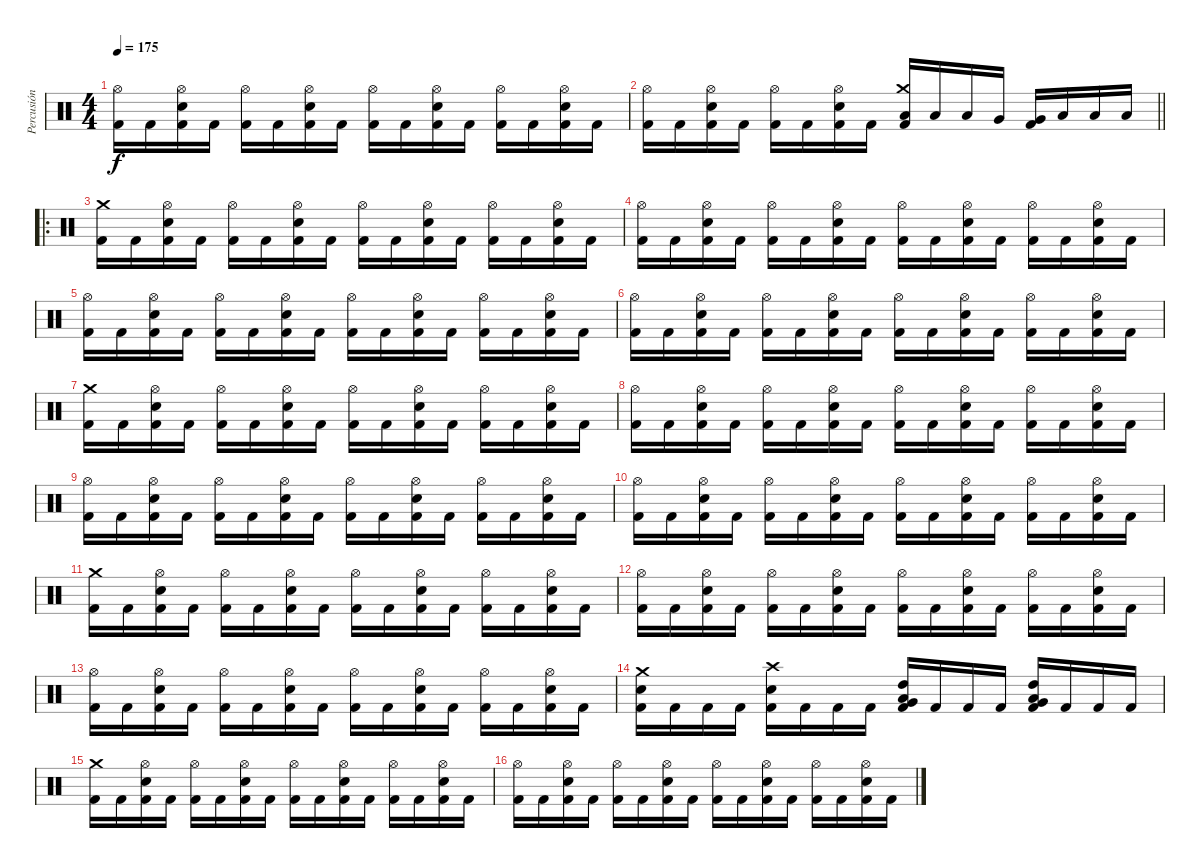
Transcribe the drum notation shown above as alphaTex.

\track ("Percusión" "Percusión") {instrument percussion}
\staff {score}
\articulation defaults
\ts (4 4)
\tempo 175
\clef neutral
\ks c
("Hi-Hat (open)" "Kick (hit) 2").16{dy f} "Kick (hit) 2".16 ("Hi-Hat (open)" "Electric Snare (hit)" "Kick (hit) 2").16 "Kick (hit) 2".16 ("Hi-Hat (open)" "Kick (hit) 2").16 "Kick (hit) 2".16 ("Hi-Hat (open)" "Electric Snare (hit)" "Kick (hit) 2").16 "Kick (hit) 2".16 ("Hi-Hat (open)" "Kick (hit) 2").16 "Kick (hit) 2".16 ("Hi-Hat (open)" "Electric Snare (hit)" "Kick (hit) 2").16 "Kick (hit) 2".16 ("Hi-Hat (open)" "Kick (hit) 2").16 "Kick (hit) 2".16 ("Hi-Hat (open)" "Electric Snare (hit)" "Kick (hit) 2").16 "Kick (hit) 2".16 |
\barLineRight lightlight
("Hi-Hat (open)" "Kick (hit) 2").16 "Kick (hit) 2".16 ("Hi-Hat (open)" "Electric Snare (hit)" "Kick (hit) 2").16 "Kick (hit) 2".16 ("Hi-Hat (open)" "Kick (hit) 2").16 "Kick (hit) 2".16 ("Hi-Hat (open)" "Electric Snare (hit)" "Kick (hit) 2").16 "Kick (hit) 2".16 ("Crash medium (hit)" "Low Tom (hit)" "Kick (hit) 2").16 "Low Tom (hit)".16 "Low Tom (hit)".16 "Very Low Tom (hit)".16 ("Very Low Tom (hit)" "Kick (hit) 2").16 "Low Floor Tom (hit)".16 "Low Floor Tom (hit)".16 "Low Floor Tom (hit)".16 |
\ro
("Crash medium (hit)" "Kick (hit) 2").16 "Kick (hit) 2".16 ("Hi-Hat (open)" "Electric Snare (hit)" "Kick (hit) 2").16 "Kick (hit) 2".16 ("Hi-Hat (open)" "Kick (hit) 2").16 "Kick (hit) 2".16 ("Hi-Hat (open)" "Electric Snare (hit)" "Kick (hit) 2").16 "Kick (hit) 2".16 ("Hi-Hat (open)" "Kick (hit) 2").16 "Kick (hit) 2".16 ("Hi-Hat (open)" "Electric Snare (hit)" "Kick (hit) 2").16 "Kick (hit) 2".16 ("Hi-Hat (open)" "Kick (hit) 2").16 "Kick (hit) 2".16 ("Hi-Hat (open)" "Electric Snare (hit)" "Kick (hit) 2").16 "Kick (hit) 2".16 |
("Hi-Hat (open)" "Kick (hit) 2").16 "Kick (hit) 2".16 ("Hi-Hat (open)" "Electric Snare (hit)" "Kick (hit) 2").16 "Kick (hit) 2".16 ("Hi-Hat (open)" "Kick (hit) 2").16 "Kick (hit) 2".16 ("Hi-Hat (open)" "Electric Snare (hit)" "Kick (hit) 2").16 "Kick (hit) 2".16 ("Hi-Hat (open)" "Kick (hit) 2").16 "Kick (hit) 2".16 ("Hi-Hat (open)" "Electric Snare (hit)" "Kick (hit) 2").16 "Kick (hit) 2".16 ("Hi-Hat (open)" "Kick (hit) 2").16 "Kick (hit) 2".16 ("Hi-Hat (open)" "Electric Snare (hit)" "Kick (hit) 2").16 "Kick (hit) 2".16 |
("Hi-Hat (open)" "Kick (hit) 2").16 "Kick (hit) 2".16 ("Hi-Hat (open)" "Electric Snare (hit)" "Kick (hit) 2").16 "Kick (hit) 2".16 ("Hi-Hat (open)" "Kick (hit) 2").16 "Kick (hit) 2".16 ("Hi-Hat (open)" "Electric Snare (hit)" "Kick (hit) 2").16 "Kick (hit) 2".16 ("Hi-Hat (open)" "Kick (hit) 2").16 "Kick (hit) 2".16 ("Hi-Hat (open)" "Electric Snare (hit)" "Kick (hit) 2").16 "Kick (hit) 2".16 ("Hi-Hat (open)" "Kick (hit) 2").16 "Kick (hit) 2".16 ("Hi-Hat (open)" "Electric Snare (hit)" "Kick (hit) 2").16 "Kick (hit) 2".16 |
("Hi-Hat (open)" "Kick (hit) 2").16 "Kick (hit) 2".16 ("Hi-Hat (open)" "Electric Snare (hit)" "Kick (hit) 2").16 "Kick (hit) 2".16 ("Hi-Hat (open)" "Kick (hit) 2").16 "Kick (hit) 2".16 ("Hi-Hat (open)" "Electric Snare (hit)" "Kick (hit) 2").16 "Kick (hit) 2".16 ("Hi-Hat (open)" "Kick (hit) 2").16 "Kick (hit) 2".16 ("Hi-Hat (open)" "Electric Snare (hit)" "Kick (hit) 2").16 "Kick (hit) 2".16 ("Hi-Hat (open)" "Kick (hit) 2").16 "Kick (hit) 2".16 ("Hi-Hat (open)" "Electric Snare (hit)" "Kick (hit) 2").16 "Kick (hit) 2".16 |
("Crash medium (hit)" "Kick (hit) 2").16 "Kick (hit) 2".16 ("Hi-Hat (open)" "Electric Snare (hit)" "Kick (hit) 2").16 "Kick (hit) 2".16 ("Hi-Hat (open)" "Kick (hit) 2").16 "Kick (hit) 2".16 ("Hi-Hat (open)" "Electric Snare (hit)" "Kick (hit) 2").16 "Kick (hit) 2".16 ("Hi-Hat (open)" "Kick (hit) 2").16 "Kick (hit) 2".16 ("Hi-Hat (open)" "Electric Snare (hit)" "Kick (hit) 2").16 "Kick (hit) 2".16 ("Hi-Hat (open)" "Kick (hit) 2").16 "Kick (hit) 2".16 ("Hi-Hat (open)" "Electric Snare (hit)" "Kick (hit) 2").16 "Kick (hit) 2".16 |
("Hi-Hat (open)" "Kick (hit) 2").16 "Kick (hit) 2".16 ("Hi-Hat (open)" "Electric Snare (hit)" "Kick (hit) 2").16 "Kick (hit) 2".16 ("Hi-Hat (open)" "Kick (hit) 2").16 "Kick (hit) 2".16 ("Hi-Hat (open)" "Electric Snare (hit)" "Kick (hit) 2").16 "Kick (hit) 2".16 ("Hi-Hat (open)" "Kick (hit) 2").16 "Kick (hit) 2".16 ("Hi-Hat (open)" "Electric Snare (hit)" "Kick (hit) 2").16 "Kick (hit) 2".16 ("Hi-Hat (open)" "Kick (hit) 2").16 "Kick (hit) 2".16 ("Hi-Hat (open)" "Electric Snare (hit)" "Kick (hit) 2").16 "Kick (hit) 2".16 |
("Hi-Hat (open)" "Kick (hit) 2").16 "Kick (hit) 2".16 ("Hi-Hat (open)" "Electric Snare (hit)" "Kick (hit) 2").16 "Kick (hit) 2".16 ("Hi-Hat (open)" "Kick (hit) 2").16 "Kick (hit) 2".16 ("Hi-Hat (open)" "Electric Snare (hit)" "Kick (hit) 2").16 "Kick (hit) 2".16 ("Hi-Hat (open)" "Kick (hit) 2").16 "Kick (hit) 2".16 ("Hi-Hat (open)" "Electric Snare (hit)" "Kick (hit) 2").16 "Kick (hit) 2".16 ("Hi-Hat (open)" "Kick (hit) 2").16 "Kick (hit) 2".16 ("Hi-Hat (open)" "Electric Snare (hit)" "Kick (hit) 2").16 "Kick (hit) 2".16 |
("Hi-Hat (open)" "Kick (hit) 2").16 "Kick (hit) 2".16 ("Hi-Hat (open)" "Electric Snare (hit)" "Kick (hit) 2").16 "Kick (hit) 2".16 ("Hi-Hat (open)" "Kick (hit) 2").16 "Kick (hit) 2".16 ("Hi-Hat (open)" "Electric Snare (hit)" "Kick (hit) 2").16 "Kick (hit) 2".16 ("Hi-Hat (open)" "Kick (hit) 2").16 "Kick (hit) 2".16 ("Hi-Hat (open)" "Electric Snare (hit)" "Kick (hit) 2").16 "Kick (hit) 2".16 ("Hi-Hat (open)" "Kick (hit) 2").16 "Kick (hit) 2".16 ("Hi-Hat (open)" "Electric Snare (hit)" "Kick (hit) 2").16 "Kick (hit) 2".16 |
("Crash medium (hit)" "Kick (hit) 2").16 "Kick (hit) 2".16 ("Hi-Hat (open)" "Electric Snare (hit)" "Kick (hit) 2").16 "Kick (hit) 2".16 ("Hi-Hat (open)" "Kick (hit) 2").16 "Kick (hit) 2".16 ("Hi-Hat (open)" "Electric Snare (hit)" "Kick (hit) 2").16 "Kick (hit) 2".16 ("Hi-Hat (open)" "Kick (hit) 2").16 "Kick (hit) 2".16 ("Hi-Hat (open)" "Electric Snare (hit)" "Kick (hit) 2").16 "Kick (hit) 2".16 ("Hi-Hat (open)" "Kick (hit) 2").16 "Kick (hit) 2".16 ("Hi-Hat (open)" "Electric Snare (hit)" "Kick (hit) 2").16 "Kick (hit) 2".16 |
("Hi-Hat (open)" "Kick (hit) 2").16 "Kick (hit) 2".16 ("Hi-Hat (open)" "Electric Snare (hit)" "Kick (hit) 2").16 "Kick (hit) 2".16 ("Hi-Hat (open)" "Kick (hit) 2").16 "Kick (hit) 2".16 ("Hi-Hat (open)" "Electric Snare (hit)" "Kick (hit) 2").16 "Kick (hit) 2".16 ("Hi-Hat (open)" "Kick (hit) 2").16 "Kick (hit) 2".16 ("Hi-Hat (open)" "Electric Snare (hit)" "Kick (hit) 2").16 "Kick (hit) 2".16 ("Hi-Hat (open)" "Kick (hit) 2").16 "Kick (hit) 2".16 ("Hi-Hat (open)" "Electric Snare (hit)" "Kick (hit) 2").16 "Kick (hit) 2".16 |
("Hi-Hat (open)" "Kick (hit) 2").16 "Kick (hit) 2".16 ("Hi-Hat (open)" "Electric Snare (hit)" "Kick (hit) 2").16 "Kick (hit) 2".16 ("Hi-Hat (open)" "Kick (hit) 2").16 "Kick (hit) 2".16 ("Hi-Hat (open)" "Electric Snare (hit)" "Kick (hit) 2").16 "Kick (hit) 2".16 ("Hi-Hat (open)" "Kick (hit) 2").16 "Kick (hit) 2".16 ("Hi-Hat (open)" "Electric Snare (hit)" "Kick (hit) 2").16 "Kick (hit) 2".16 ("Hi-Hat (open)" "Kick (hit) 2").16 "Kick (hit) 2".16 ("Hi-Hat (open)" "Electric Snare (hit)" "Kick (hit) 2").16 "Kick (hit) 2".16 |
("Crash medium (hit)" "Electric Snare (hit)" "Kick (hit) 2").16 "Kick (hit) 2".16 "Kick (hit) 2".16 "Kick (hit) 2".16 ("Crash high (hit)" "Electric Snare (hit)" "Kick (hit) 2").16 "Kick (hit) 2".16 "Kick (hit) 2".16 "Kick (hit) 2".16 ("High Tom (hit)" "Very Low Tom (hit)" "Low Tom (hit)" "Kick (hit) 2").16 "Kick (hit) 2".16 "Kick (hit) 2".16 "Kick (hit) 2".16 ("High Tom (hit)" "Very Low Tom (hit)" "Low Floor Tom (hit)" "Kick (hit) 2").16 "Kick (hit) 2".16 "Kick (hit) 2".16 "Kick (hit) 2".16 |
("Crash medium (hit)" "Kick (hit) 2").16 "Kick (hit) 2".16 ("Hi-Hat (open)" "Electric Snare (hit)" "Kick (hit) 2").16 "Kick (hit) 2".16 ("Hi-Hat (open)" "Kick (hit) 2").16 "Kick (hit) 2".16 ("Hi-Hat (open)" "Electric Snare (hit)" "Kick (hit) 2").16 "Kick (hit) 2".16 ("Hi-Hat (open)" "Kick (hit) 2").16 "Kick (hit) 2".16 ("Hi-Hat (open)" "Electric Snare (hit)" "Kick (hit) 2").16 "Kick (hit) 2".16 ("Hi-Hat (open)" "Kick (hit) 2").16 "Kick (hit) 2".16 ("Hi-Hat (open)" "Electric Snare (hit)" "Kick (hit) 2").16 "Kick (hit) 2".16 |
("Hi-Hat (open)" "Kick (hit) 2").16 "Kick (hit) 2".16 ("Hi-Hat (open)" "Electric Snare (hit)" "Kick (hit) 2").16 "Kick (hit) 2".16 ("Hi-Hat (open)" "Kick (hit) 2").16 "Kick (hit) 2".16 ("Hi-Hat (open)" "Electric Snare (hit)" "Kick (hit) 2").16 "Kick (hit) 2".16 ("Hi-Hat (open)" "Kick (hit) 2").16 "Kick (hit) 2".16 ("Hi-Hat (open)" "Electric Snare (hit)" "Kick (hit) 2").16 "Kick (hit) 2".16 ("Hi-Hat (open)" "Kick (hit) 2").16 "Kick (hit) 2".16 ("Hi-Hat (open)" "Electric Snare (hit)" "Kick (hit) 2").16 "Kick (hit) 2".16
